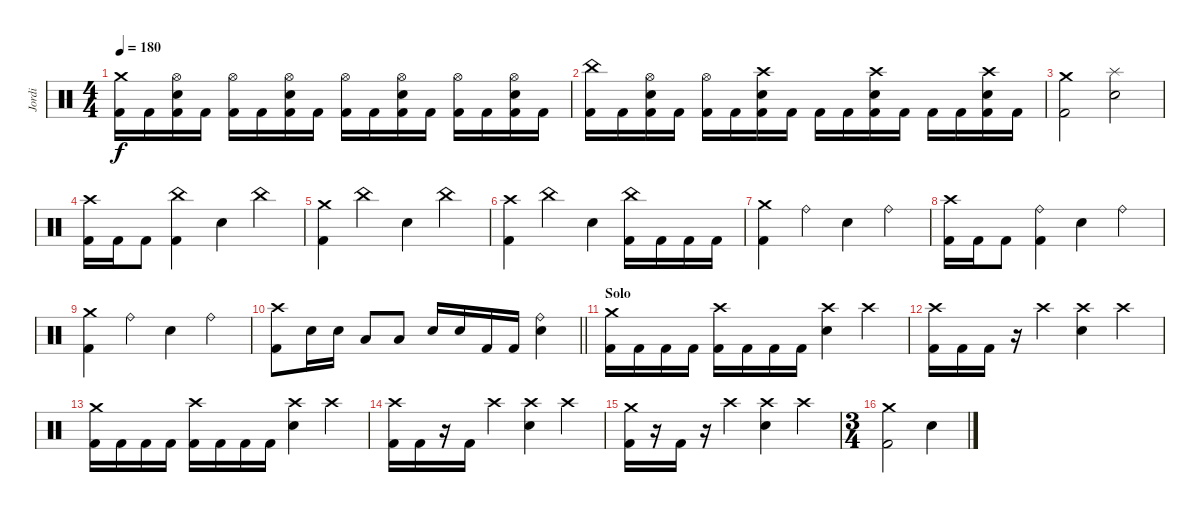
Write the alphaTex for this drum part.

\track ("Jordi" "Jordi") {instrument percussion}
\staff {score}
\articulation defaults
\ts (4 4)
\tempo 180
\clef neutral
\ks c
("Crash medium (hit)" "Kick (hit) 2").16{dy f} "Kick (hit) 2".16 ("Hi-Hat (open)" "Snare (hit) 2" "Kick (hit) 2").16 "Kick (hit) 2".16 ("Hi-Hat (open)" "Kick (hit) 2").16 "Kick (hit) 2".16 ("Hi-Hat (open)" "Snare (hit) 2" "Kick (hit) 2").16 "Kick (hit) 2".16 ("Hi-Hat (open)" "Kick (hit) 2").16 "Kick (hit) 2".16 ("Hi-Hat (open)" "Snare (hit) 2" "Kick (hit) 2").16 "Kick (hit) 2".16 ("Hi-Hat (open)" "Kick (hit) 2").16 "Kick (hit) 2".16 ("Hi-Hat (open)" "Snare (hit) 2" "Kick (hit) 2").16 "Kick (hit) 2".16 |
("China (hit)" "Kick (hit) 2").16 "Kick (hit) 2".16 ("Hi-Hat (open)" "Snare (hit) 2" "Kick (hit) 2").16 "Kick (hit) 2".16 ("Hi-Hat (open)" "Kick (hit) 2").16 "Kick (hit) 2".16 ("Crash high (hit)" "Snare (hit) 2" "Kick (hit) 2").16 "Kick (hit) 2".16 "Kick (hit) 2".16 "Kick (hit) 2".16 ("Crash high (hit)" "Snare (hit) 2" "Kick (hit) 2").16 "Kick (hit) 2".16 "Kick (hit) 2".16 "Kick (hit) 2".16 ("Crash high (hit)" "Snare (hit) 2" "Kick (hit) 2").16 "Kick (hit) 2".16 |
("Crash medium (hit)" "Kick (hit) 2").2 ("Splash (hit)" "Snare (hit) 2").2 |
("Crash high (hit)" "Kick (hit) 2").16 "Kick (hit) 2".16 "Kick (hit) 2".8 ("China (hit)" "Kick (hit) 2").4 "Snare (hit) 2".4 "China (hit)".4 |
("Crash medium (hit)" "Kick (hit) 2").4 "China (hit)".4 "Snare (hit) 2".4 "China (hit)".4 |
("Crash high (hit)" "Kick (hit) 2").4 "China (hit)".4 "Snare (hit) 2".4 ("China (hit)" "Kick (hit) 2").16 "Kick (hit) 2".16 "Kick (hit) 2".16 "Kick (hit) 2".16 |
("Crash medium (hit)" "Kick (hit) 2").4 "Ride (bell)".4 "Snare (hit) 2".4 "Ride (bell)".4 |
("Crash high (hit)" "Kick (hit) 2").16 "Kick (hit) 2".16 "Kick (hit) 2".8 ("Ride (bell)" "Kick (hit) 2").4 "Snare (hit) 2".4 "Ride (bell)".4 |
("Crash medium (hit)" "Kick (hit) 2").4 "Ride (bell)".4 "Snare (hit) 2".4 "Ride (bell)".4 |
\barLineRight lightlight
("Crash high (hit)" "Kick (hit) 2").8 "Snare (hit) 2".16 "Snare (hit) 2".16 "Low Tom (hit)".8 "Low Tom (hit)".8 "Snare (hit) 2".16 "Snare (hit) 2".16 "Kick (hit) 2".16 "Kick (hit) 2".16 ("Ride (bell)" "Snare (hit) 2").4 |
\section ("" "Solo")
("Crash medium (hit)" "Kick (hit) 2").16 "Kick (hit) 2".16 "Kick (hit) 2".16 "Kick (hit) 2".16 ("Crash high (hit)" "Kick (hit) 2").16 "Kick (hit) 2".16 "Kick (hit) 2".16 "Kick (hit) 2".16 ("Crash high (hit)" "Snare (hit) 2").4 "Crash high (hit)".4 |
("Crash high (hit)" "Kick (hit) 2").16 "Kick (hit) 2".16 "Kick (hit) 2".16 r.16 "Crash high (hit)".4 ("Crash high (hit)" "Snare (hit) 2").4 "Crash high (hit)".4 |
("Crash medium (hit)" "Kick (hit) 2").16 "Kick (hit) 2".16 "Kick (hit) 2".16 "Kick (hit) 2".16 ("Crash high (hit)" "Kick (hit) 2").16 "Kick (hit) 2".16 "Kick (hit) 2".16 "Kick (hit) 2".16 ("Crash high (hit)" "Snare (hit) 2").4 "Crash high (hit)".4 |
("Crash high (hit)" "Kick (hit) 2").16 "Kick (hit) 2".16 r.16 "Kick (hit) 2".16 "Crash high (hit)".4 ("Crash high (hit)" "Snare (hit) 2").4 "Crash high (hit)".4 |
("Crash medium (hit)" "Kick (hit) 2").16 r.16 "Kick (hit) 2".16 r.16 "Crash high (hit)".4 ("Crash high (hit)" "Snare (hit) 2").4 "Crash high (hit)".4 |
\ts (3 4)
("Crash medium (hit)" "Kick (hit) 2").2 "Snare (hit) 2".4
